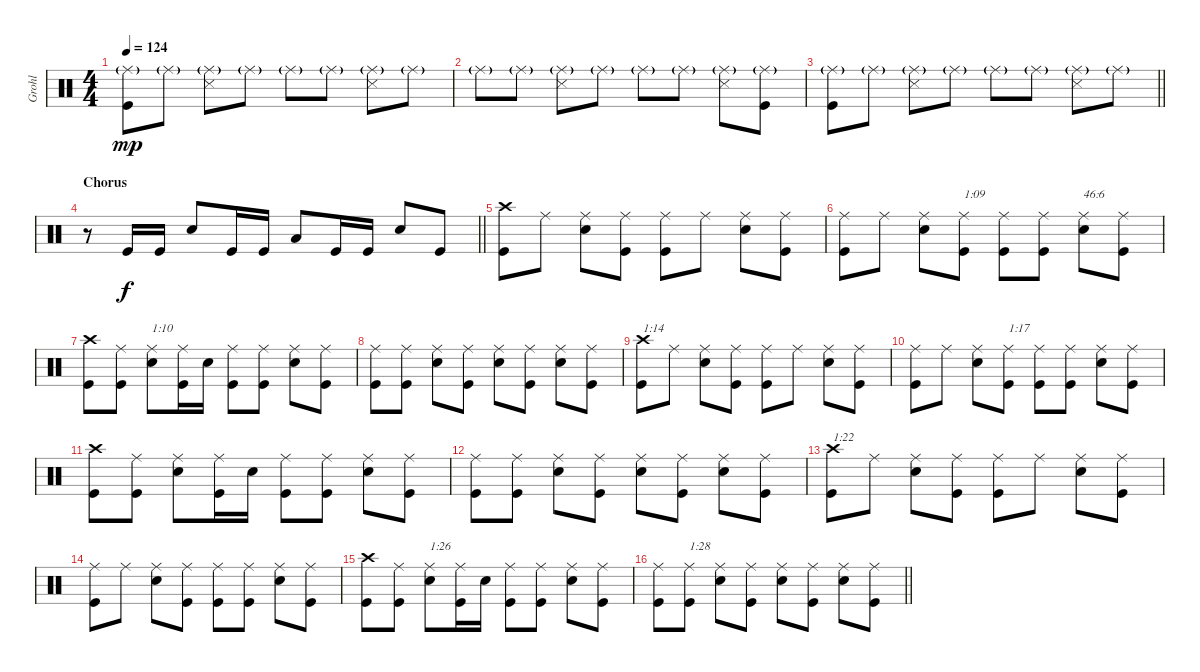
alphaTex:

\track ("Grohl" "Grohl") {instrument percussion}
\staff {score}
\articulation defaults
\ts (4 4)
\tempo 124
\clef neutral
\ks c
("Ride (middle)"{g} "Kick (hit)").8{dy mp} "Ride (middle)"{g}.8 ("Ride (middle)"{g} "Snare (side stick) 3").8 "Ride (middle)"{g}.8 "Ride (middle)"{g}.8 "Ride (middle)"{g}.8 ("Ride (middle)"{g} "Snare (side stick) 3").8 "Ride (middle)"{g}.8 |
"Ride (middle)"{g}.8 "Ride (middle)"{g}.8 ("Ride (middle)"{g} "Snare (side stick) 3").8 "Ride (middle)"{g}.8 "Ride (middle)"{g}.8 "Ride (middle)"{g}.8 ("Ride (middle)"{g} "Snare (side stick) 3").8 ("Ride (middle)"{g} "Kick (hit)").8 |
\barLineRight lightlight
("Ride (middle)"{g} "Kick (hit)").8 "Ride (middle)"{g}.8 ("Ride (middle)"{g} "Snare (side stick) 3").8 "Ride (middle)"{g}.8 "Ride (middle)"{g}.8 "Ride (middle)"{g}.8 ("Ride (middle)"{g} "Snare (side stick) 3").8 "Ride (middle)"{g}.8 |
\section ("" "Chorus")
\barLineRight lightlight
r.8 "Kick (hit)".16{dy f} "Kick (hit)".16 "Snare (hit) 2".8 "Kick (hit)".16 "Kick (hit)".16 "Low Tom (hit)".8 "Kick (hit)".16 "Kick (hit)".16 "Snare (hit) 2".8 "Kick (hit)".8 |
("Crash high (hit)" "Kick (hit)").8 "Ride (middle)".8 ("Ride (middle)" "Snare (hit) 2").8 ("Ride (middle)" "Kick (hit)").8 ("Ride (middle)" "Kick (hit)").8 "Ride (middle)".8 ("Ride (middle)" "Snare (hit) 2").8 ("Ride (middle)" "Kick (hit)").8 |
("Ride (middle)" "Kick (hit)").8 "Ride (middle)".8 ("Ride (middle)" "Snare (hit) 2").8 ("Ride (middle)" "Kick (hit)").8{txt "1:09"} ("Ride (middle)" "Kick (hit)").8 ("Ride (middle)" "Kick (hit)").8 ("Ride (middle)" "Snare (hit) 2").8{txt "46:6"} ("Ride (middle)" "Kick (hit)").8 |
("Crash high (hit)" "Kick (hit)").8 ("Ride (middle)" "Kick (hit)").8 ("Ride (middle)" "Snare (hit) 2").8{txt "1:10"} ("Ride (middle)" "Kick (hit)").16 "Snare (hit) 2".16 ("Ride (middle)" "Kick (hit)").8 ("Ride (middle)" "Kick (hit)").8 ("Ride (middle)" "Snare (hit) 2").8 ("Ride (middle)" "Kick (hit)").8 |
("Ride (middle)" "Kick (hit)").8 ("Ride (middle)" "Kick (hit)").8 ("Ride (middle)" "Snare (hit) 2").8 ("Ride (middle)" "Kick (hit)").8 ("Ride (middle)" "Snare (hit) 2").8 ("Ride (middle)" "Kick (hit)").8 ("Ride (middle)" "Snare (hit) 2").8 ("Ride (middle)" "Kick (hit)").8 |
("Crash high (hit)" "Kick (hit)").8{txt "1:14"} "Ride (middle)".8 ("Ride (middle)" "Snare (hit) 2").8 ("Ride (middle)" "Kick (hit)").8 ("Ride (middle)" "Kick (hit)").8 "Ride (middle)".8 ("Ride (middle)" "Snare (hit) 2").8 ("Ride (middle)" "Kick (hit)").8 |
("Ride (middle)" "Kick (hit)").8 "Ride (middle)".8 ("Ride (middle)" "Snare (hit) 2").8 ("Ride (middle)" "Kick (hit)").8{txt "1:17"} ("Ride (middle)" "Kick (hit)").8 ("Ride (middle)" "Kick (hit)").8 ("Ride (middle)" "Snare (hit) 2").8 ("Ride (middle)" "Kick (hit)").8 |
("Crash high (hit)" "Kick (hit)").8 ("Ride (middle)" "Kick (hit)").8 ("Ride (middle)" "Snare (hit) 2").8 ("Ride (middle)" "Kick (hit)").16 "Snare (hit) 2".16 ("Ride (middle)" "Kick (hit)").8 ("Ride (middle)" "Kick (hit)").8 ("Ride (middle)" "Snare (hit) 2").8 ("Ride (middle)" "Kick (hit)").8 |
("Ride (middle)" "Kick (hit)").8 ("Ride (middle)" "Kick (hit)").8 ("Ride (middle)" "Snare (hit) 2").8 ("Ride (middle)" "Kick (hit)").8 ("Ride (middle)" "Snare (hit) 2").8 ("Ride (middle)" "Kick (hit)").8 ("Ride (middle)" "Snare (hit) 2").8 ("Ride (middle)" "Kick (hit)").8 |
("Crash high (hit)" "Kick (hit)").8{txt "1:22"} "Ride (middle)".8 ("Ride (middle)" "Snare (hit) 2").8 ("Ride (middle)" "Kick (hit)").8 ("Ride (middle)" "Kick (hit)").8 "Ride (middle)".8 ("Ride (middle)" "Snare (hit) 2").8 ("Ride (middle)" "Kick (hit)").8 |
("Ride (middle)" "Kick (hit)").8 "Ride (middle)".8 ("Ride (middle)" "Snare (hit) 2").8 ("Ride (middle)" "Kick (hit)").8 ("Ride (middle)" "Kick (hit)").8 ("Ride (middle)" "Kick (hit)").8 ("Ride (middle)" "Snare (hit) 2").8 ("Ride (middle)" "Kick (hit)").8 |
("Crash high (hit)" "Kick (hit)").8 ("Ride (middle)" "Kick (hit)").8 ("Ride (middle)" "Snare (hit) 2").8{txt "1:26"} ("Ride (middle)" "Kick (hit)").16 "Snare (hit) 2".16 ("Ride (middle)" "Kick (hit)").8 ("Ride (middle)" "Kick (hit)").8 ("Ride (middle)" "Snare (hit) 2").8 ("Ride (middle)" "Kick (hit)").8 |
\barLineRight lightlight
("Ride (middle)" "Kick (hit)").8 ("Ride (middle)" "Kick (hit)").8{txt "1:28"} ("Ride (middle)" "Snare (hit) 2").8 ("Ride (middle)" "Kick (hit)").8 ("Ride (middle)" "Snare (hit) 2").8 ("Ride (middle)" "Kick (hit)").8 ("Ride (middle)" "Snare (hit) 2").8 ("Ride (middle)" "Kick (hit)").8
